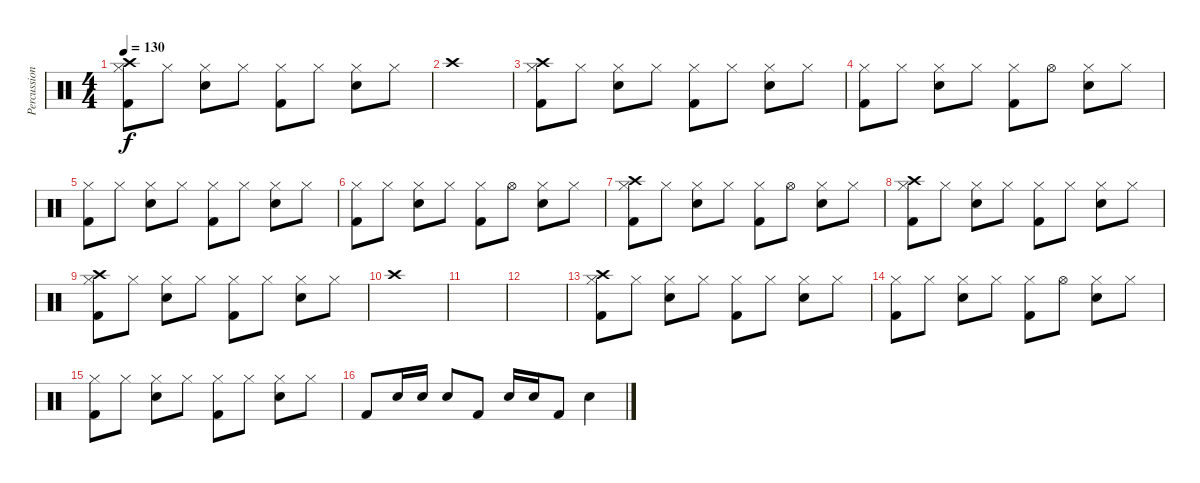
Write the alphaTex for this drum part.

\track ("Percussion" "Percussion") {instrument percussion}
\staff {score}
\articulation defaults
\ts (4 4)
\tempo 130
\clef neutral
\ks c
("Crash high (hit)" "Hi-Hat (closed)" "Kick (hit) 2").8{dy f} "Hi-Hat (closed)".8 ("Hi-Hat (closed)" "Electric Snare (hit)").8 "Hi-Hat (closed)".8 ("Hi-Hat (closed)" "Kick (hit) 2").8 "Hi-Hat (closed)".8 ("Hi-Hat (closed)" "Electric Snare (hit)").8 "Hi-Hat (closed)".8 |
"Crash high (hit)".1 |
("Crash high (hit)" "Hi-Hat (closed)" "Kick (hit) 2").8 "Hi-Hat (closed)".8 ("Hi-Hat (closed)" "Electric Snare (hit)").8 "Hi-Hat (closed)".8 ("Hi-Hat (closed)" "Kick (hit) 2").8 "Hi-Hat (closed)".8 ("Hi-Hat (closed)" "Electric Snare (hit)").8 "Hi-Hat (closed)".8 |
("Hi-Hat (closed)" "Kick (hit) 2").8 "Hi-Hat (closed)".8 ("Hi-Hat (closed)" "Electric Snare (hit)").8 "Hi-Hat (closed)".8 ("Hi-Hat (closed)" "Kick (hit) 2").8 "Hi-Hat (open)".8 ("Hi-Hat (closed)" "Electric Snare (hit)").8 "Hi-Hat (closed)".8 |
("Hi-Hat (closed)" "Kick (hit) 2").8 "Hi-Hat (closed)".8 ("Hi-Hat (closed)" "Electric Snare (hit)").8 "Hi-Hat (closed)".8 ("Hi-Hat (closed)" "Kick (hit) 2").8 "Hi-Hat (closed)".8 ("Hi-Hat (closed)" "Electric Snare (hit)").8 "Hi-Hat (closed)".8 |
("Hi-Hat (closed)" "Kick (hit) 2").8 "Hi-Hat (closed)".8 ("Hi-Hat (closed)" "Electric Snare (hit)").8 "Hi-Hat (closed)".8 ("Hi-Hat (closed)" "Kick (hit) 2").8 "Hi-Hat (open)".8 ("Hi-Hat (closed)" "Electric Snare (hit)").8 "Hi-Hat (closed)".8 |
("Crash high (hit)" "Hi-Hat (closed)" "Kick (hit) 2").8 "Hi-Hat (closed)".8 ("Hi-Hat (closed)" "Electric Snare (hit)").8 "Hi-Hat (closed)".8 ("Hi-Hat (closed)" "Kick (hit) 2").8 "Hi-Hat (open)".8 ("Hi-Hat (closed)" "Electric Snare (hit)").8 "Hi-Hat (closed)".8 |
("Crash high (hit)" "Hi-Hat (closed)" "Kick (hit) 2").8 "Hi-Hat (closed)".8 ("Hi-Hat (closed)" "Electric Snare (hit)").8 "Hi-Hat (closed)".8 ("Hi-Hat (closed)" "Kick (hit) 2").8 "Hi-Hat (closed)".8 ("Hi-Hat (closed)" "Electric Snare (hit)").8 "Hi-Hat (closed)".8 |
("Crash high (hit)" "Hi-Hat (closed)" "Kick (hit) 2").8 "Hi-Hat (closed)".8 ("Hi-Hat (closed)" "Electric Snare (hit)").8 "Hi-Hat (closed)".8 ("Hi-Hat (closed)" "Kick (hit) 2").8 "Hi-Hat (closed)".8 ("Hi-Hat (closed)" "Electric Snare (hit)").8 "Hi-Hat (closed)".8 |
"Crash high (hit)".1 |
|
|
("Crash high (hit)" "Hi-Hat (closed)" "Kick (hit) 2").8 "Hi-Hat (closed)".8 ("Hi-Hat (closed)" "Electric Snare (hit)").8 "Hi-Hat (closed)".8 ("Hi-Hat (closed)" "Kick (hit) 2").8 "Hi-Hat (closed)".8 ("Hi-Hat (closed)" "Electric Snare (hit)").8 "Hi-Hat (closed)".8 |
("Hi-Hat (closed)" "Kick (hit) 2").8 "Hi-Hat (closed)".8 ("Hi-Hat (closed)" "Electric Snare (hit)").8 "Hi-Hat (closed)".8 ("Hi-Hat (closed)" "Kick (hit) 2").8 "Hi-Hat (open)".8 ("Hi-Hat (closed)" "Electric Snare (hit)").8 "Hi-Hat (closed)".8 |
("Hi-Hat (closed)" "Kick (hit) 2").8 "Hi-Hat (closed)".8 ("Hi-Hat (closed)" "Electric Snare (hit)").8 "Hi-Hat (closed)".8 ("Hi-Hat (closed)" "Kick (hit) 2").8 "Hi-Hat (closed)".8 ("Hi-Hat (closed)" "Electric Snare (hit)").8 "Hi-Hat (closed)".8 |
"Kick (hit) 2".8 "Electric Snare (hit)".16 "Electric Snare (hit)".16 "Electric Snare (hit)".8 "Kick (hit) 2".8 "Electric Snare (hit)".16 "Electric Snare (hit)".16 "Kick (hit) 2".8 "Electric Snare (hit)".4
